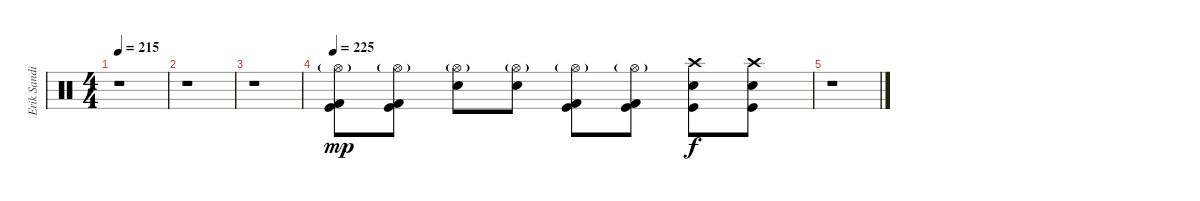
\track ("Erik Sandin" "Erik Sandi") {instrument percussion}
\staff {score}
\articulation defaults
\ts (4 4)
\tempo 215
\clef neutral
\ks c
r.1{dy f} |
r.1 |
r.1 |
\tempo 225
("Hi-Hat (open)"{g} "Kick (hit) 2" "Kick (hit)").8{dy mp} ("Hi-Hat (open)"{g} "Kick (hit) 2" "Kick (hit)").8 ("Hi-Hat (open)"{g} "Electric Snare (hit)").8 ("Hi-Hat (open)"{g} "Electric Snare (hit)").8 ("Hi-Hat (open)"{g} "Kick (hit) 2" "Kick (hit)").8 ("Hi-Hat (open)"{g} "Kick (hit) 2" "Kick (hit)").8 ("Crash high (hit)" "Electric Snare (hit)" "Kick (hit)").8{dy f} ("Crash high (hit)" "Electric Snare (hit)" "Kick (hit)").8 |
r.1
